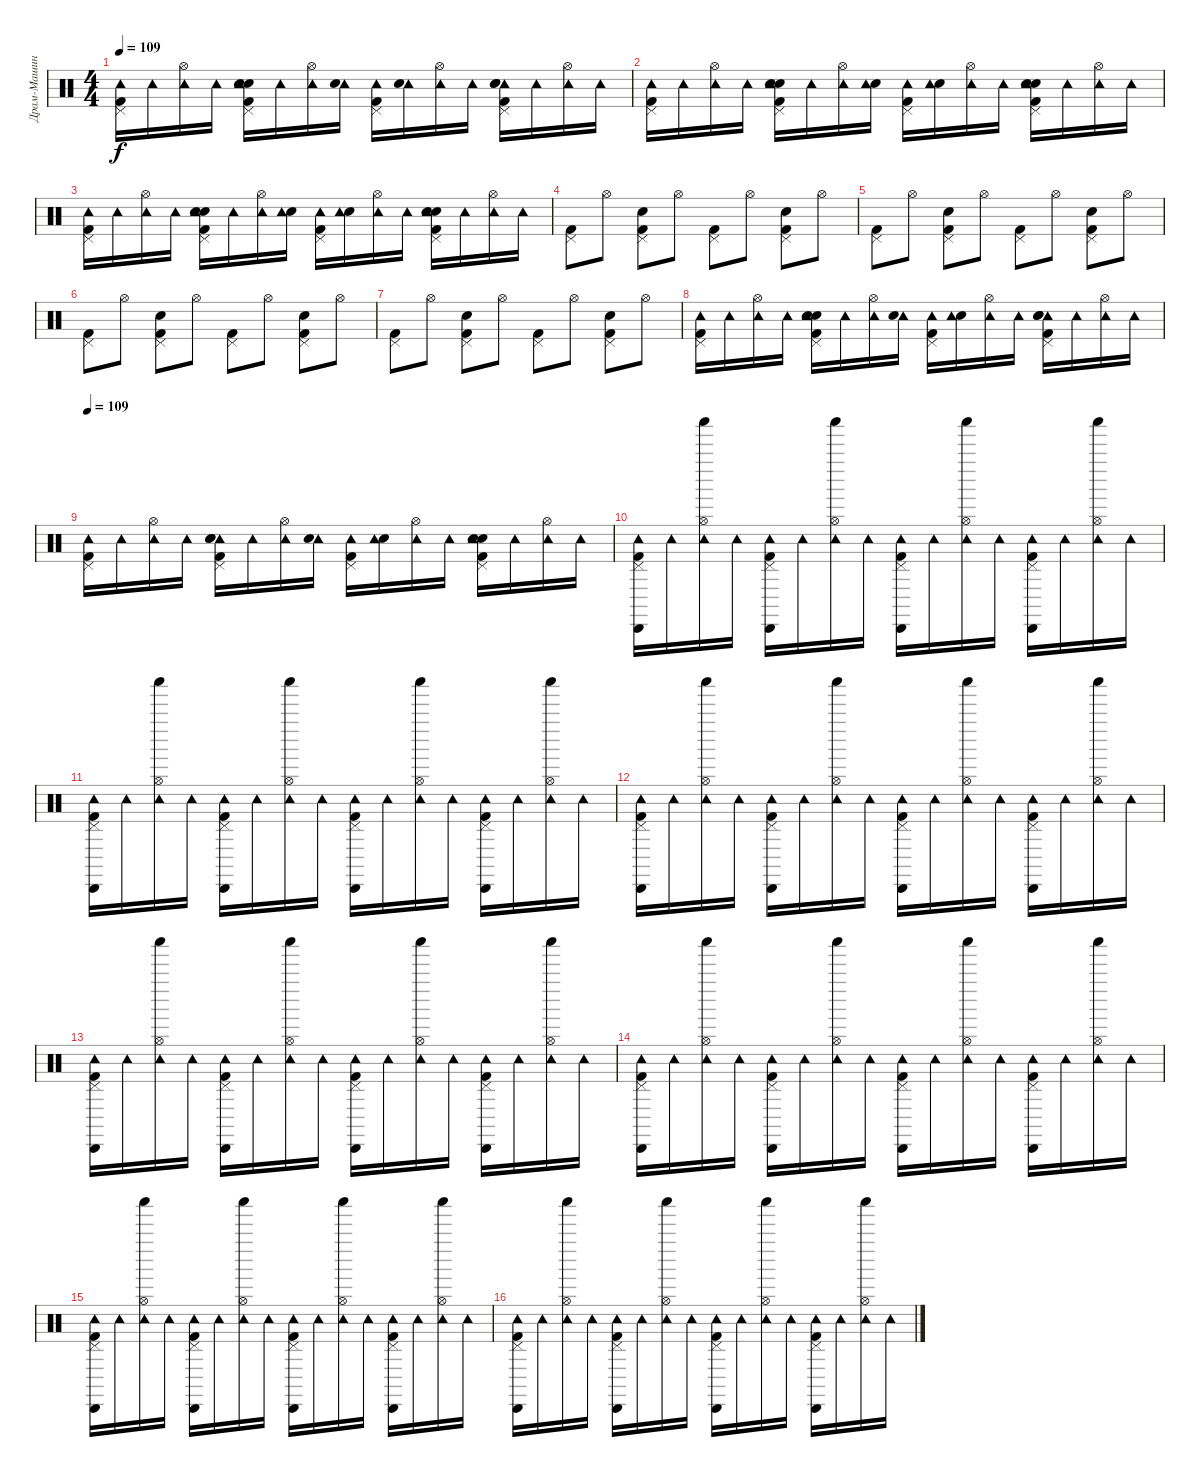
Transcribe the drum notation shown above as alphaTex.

\track ("Драм-Машина" "Драм-Машин") {instrument percussion}
\staff {score}
\articulation defaults
\ts (4 4)
\tempo 109
\clef neutral
\ks c
("Kick (hit) 2" "Tambourine (hit)" "Pedal Hi-Hat (hit)").16{dy f} "Tambourine (hit)".16 ("Hi-Hat (open)" "Tambourine (hit)").16 "Tambourine (hit)".16 ("Snare (hit) 2" "Pedal Hi-Hat (hit)" "Tambourine (hit)" "Kick (hit) 2" "Electric Snare (hit)").16 "Tambourine (hit)".16 ("Hi-Hat (open)" "Tambourine (hit)").16 ("Tambourine (hit)" "Electric Snare (hit)").16 ("Kick (hit) 2" "Pedal Hi-Hat (hit)" "Tambourine (hit)").16 ("Tambourine (hit)" "Electric Snare (hit)").16 ("Hi-Hat (open)" "Tambourine (hit)").16 "Tambourine (hit)".16 ("Tambourine (hit)" "Electric Snare (hit)" "Kick (hit) 2" "Pedal Hi-Hat (hit)" "Snare (hit) 2").16 "Tambourine (hit)".16 ("Tambourine (hit)" "Hi-Hat (open)").16 "Tambourine (hit)".16 |
("Pedal Hi-Hat (hit)" "Tambourine (hit)" "Kick (hit) 2").16 "Tambourine (hit)".16 ("Tambourine (hit)" "Hi-Hat (open)").16 "Tambourine (hit)".16 ("Snare (hit) 2" "Kick (hit) 2" "Pedal Hi-Hat (hit)" "Tambourine (hit)" "Electric Snare (hit)").16 "Tambourine (hit)".16 ("Hi-Hat (open)" "Tambourine (hit)").16 ("Electric Snare (hit)" "Tambourine (hit)").16 ("Tambourine (hit)" "Pedal Hi-Hat (hit)" "Kick (hit) 2").16 ("Electric Snare (hit)" "Tambourine (hit)").16 ("Tambourine (hit)" "Hi-Hat (open)").16 "Tambourine (hit)".16 ("Electric Snare (hit)" "Snare (hit) 2" "Tambourine (hit)" "Kick (hit) 2" "Pedal Hi-Hat (hit)").16 "Tambourine (hit)".16 ("Hi-Hat (open)" "Tambourine (hit)").16 "Tambourine (hit)".16 |
("Pedal Hi-Hat (hit)" "Tambourine (hit)" "Kick (hit) 2").16 "Tambourine (hit)".16 ("Tambourine (hit)" "Hi-Hat (open)").16 "Tambourine (hit)".16 ("Kick (hit) 2" "Snare (hit) 2" "Tambourine (hit)" "Electric Snare (hit)" "Pedal Hi-Hat (hit)").16 "Tambourine (hit)".16 ("Hi-Hat (open)" "Tambourine (hit)").16 ("Electric Snare (hit)" "Tambourine (hit)").16 ("Kick (hit) 2" "Pedal Hi-Hat (hit)" "Tambourine (hit)").16 ("Electric Snare (hit)" "Tambourine (hit)").16 ("Tambourine (hit)" "Hi-Hat (open)").16 "Tambourine (hit)".16 ("Kick (hit) 2" "Snare (hit) 2" "Tambourine (hit)" "Electric Snare (hit)" "Pedal Hi-Hat (hit)").16 "Tambourine (hit)".16 ("Tambourine (hit)" "Hi-Hat (open)").16 "Tambourine (hit)".16 |
("Pedal Hi-Hat (hit)" "Kick (hit) 2").8 "Hi-Hat (open)".8 ("Kick (hit) 2" "Pedal Hi-Hat (hit)" "Snare (hit) 2").8 "Hi-Hat (open)".8 ("Kick (hit) 2" "Pedal Hi-Hat (hit)").8 "Hi-Hat (open)".8 ("Pedal Hi-Hat (hit)" "Snare (hit) 2" "Kick (hit) 2").8 "Hi-Hat (open)".8 |
("Kick (hit) 2" "Pedal Hi-Hat (hit)").8 "Hi-Hat (open)".8 ("Kick (hit) 2" "Snare (hit) 2" "Pedal Hi-Hat (hit)").8 "Hi-Hat (open)".8 ("Pedal Hi-Hat (hit)" "Kick (hit) 2").8 "Hi-Hat (open)".8 ("Snare (hit) 2" "Pedal Hi-Hat (hit)" "Kick (hit) 2").8 "Hi-Hat (open)".8 |
("Pedal Hi-Hat (hit)" "Kick (hit) 2").8 "Hi-Hat (open)".8 ("Snare (hit) 2" "Pedal Hi-Hat (hit)" "Kick (hit) 2").8 "Hi-Hat (open)".8 ("Kick (hit) 2" "Pedal Hi-Hat (hit)").8 "Hi-Hat (open)".8 ("Snare (hit) 2" "Pedal Hi-Hat (hit)" "Kick (hit) 2").8 "Hi-Hat (open)".8 |
("Kick (hit) 2" "Pedal Hi-Hat (hit)").8 "Hi-Hat (open)".8 ("Pedal Hi-Hat (hit)" "Kick (hit) 2" "Snare (hit) 2").8 "Hi-Hat (open)".8 ("Pedal Hi-Hat (hit)" "Kick (hit) 2").8 "Hi-Hat (open)".8 ("Pedal Hi-Hat (hit)" "Snare (hit) 2" "Kick (hit) 2").8 "Hi-Hat (open)".8 |
("Tambourine (hit)" "Pedal Hi-Hat (hit)" "Kick (hit) 2").16 "Tambourine (hit)".16 ("Tambourine (hit)" "Hi-Hat (open)").16 "Tambourine (hit)".16 ("Electric Snare (hit)" "Snare (hit) 2" "Kick (hit) 2" "Tambourine (hit)" "Pedal Hi-Hat (hit)").16 "Tambourine (hit)".16 ("Hi-Hat (open)" "Tambourine (hit)").16 ("Tambourine (hit)" "Electric Snare (hit)").16 ("Tambourine (hit)" "Pedal Hi-Hat (hit)" "Kick (hit) 2").16 ("Electric Snare (hit)" "Tambourine (hit)").16 ("Tambourine (hit)" "Hi-Hat (open)").16 "Tambourine (hit)".16 ("Pedal Hi-Hat (hit)" "Tambourine (hit)" "Kick (hit) 2" "Snare (hit) 2" "Electric Snare (hit)").16 "Tambourine (hit)".16 ("Tambourine (hit)" "Hi-Hat (open)").16 "Tambourine (hit)".16 |
\tempo 109
("Tambourine (hit)" "Pedal Hi-Hat (hit)" "Kick (hit) 2").16 "Tambourine (hit)".16 ("Hi-Hat (open)" "Tambourine (hit)").16 "Tambourine (hit)".16 ("Tambourine (hit)" "Pedal Hi-Hat (hit)" "Snare (hit) 2" "Electric Snare (hit)" "Kick (hit) 2").16 "Tambourine (hit)".16 ("Hi-Hat (open)" "Tambourine (hit)").16 ("Tambourine (hit)" "Electric Snare (hit)").16 ("Tambourine (hit)" "Pedal Hi-Hat (hit)" "Kick (hit) 2").16 ("Electric Snare (hit)" "Tambourine (hit)").16 ("Tambourine (hit)" "Hi-Hat (open)").16 "Tambourine (hit)".16 ("Kick (hit) 2" "Electric Snare (hit)" "Pedal Hi-Hat (hit)" "Tambourine (hit)" "Snare (hit) 2").16 "Tambourine (hit)".16 ("Hi-Hat (open)" "Tambourine (hit)").16 "Tambourine (hit)".16 |
("Pedal Hi-Hat (hit)" "Kick (hit) 2" "Cabasa (hit)" "Tambourine (hit)").16 "Tambourine (hit)".16 ("Hi-Hat (open)" "Tambourine (hit)" "Shaker (hit)").16 "Tambourine (hit)".16 ("Kick (hit) 2" "Pedal Hi-Hat (hit)" "Tambourine (hit)" "Cabasa (hit)").16 "Tambourine (hit)".16 ("Tambourine (hit)" "Hi-Hat (open)" "Shaker (hit)").16 "Tambourine (hit)".16 ("Kick (hit) 2" "Tambourine (hit)" "Cabasa (hit)" "Pedal Hi-Hat (hit)").16 "Tambourine (hit)".16 ("Hi-Hat (open)" "Tambourine (hit)" "Shaker (hit)").16 "Tambourine (hit)".16 ("Kick (hit) 2" "Pedal Hi-Hat (hit)" "Cabasa (hit)" "Tambourine (hit)").16 "Tambourine (hit)".16 ("Hi-Hat (open)" "Tambourine (hit)" "Shaker (hit)").16 "Tambourine (hit)".16 |
("Pedal Hi-Hat (hit)" "Cabasa (hit)" "Kick (hit) 2" "Tambourine (hit)").16 "Tambourine (hit)".16 ("Shaker (hit)" "Tambourine (hit)" "Hi-Hat (open)").16 "Tambourine (hit)".16 ("Cabasa (hit)" "Kick (hit) 2" "Pedal Hi-Hat (hit)" "Tambourine (hit)").16 "Tambourine (hit)".16 ("Hi-Hat (open)" "Shaker (hit)" "Tambourine (hit)").16 "Tambourine (hit)".16 ("Cabasa (hit)" "Tambourine (hit)" "Kick (hit) 2" "Pedal Hi-Hat (hit)").16 "Tambourine (hit)".16 ("Hi-Hat (open)" "Tambourine (hit)" "Shaker (hit)").16 "Tambourine (hit)".16 ("Tambourine (hit)" "Pedal Hi-Hat (hit)" "Cabasa (hit)" "Kick (hit) 2").16 "Tambourine (hit)".16 ("Tambourine (hit)" "Shaker (hit)" "Hi-Hat (open)").16 "Tambourine (hit)".16 |
("Tambourine (hit)" "Cabasa (hit)" "Pedal Hi-Hat (hit)" "Kick (hit) 2").16 "Tambourine (hit)".16 ("Shaker (hit)" "Tambourine (hit)" "Hi-Hat (open)").16 "Tambourine (hit)".16 ("Kick (hit) 2" "Cabasa (hit)" "Tambourine (hit)" "Pedal Hi-Hat (hit)").16 "Tambourine (hit)".16 ("Tambourine (hit)" "Hi-Hat (open)" "Shaker (hit)").16 "Tambourine (hit)".16 ("Kick (hit) 2" "Cabasa (hit)" "Tambourine (hit)" "Pedal Hi-Hat (hit)").16 "Tambourine (hit)".16 ("Tambourine (hit)" "Hi-Hat (open)" "Shaker (hit)").16 "Tambourine (hit)".16 ("Kick (hit) 2" "Cabasa (hit)" "Pedal Hi-Hat (hit)" "Tambourine (hit)").16 "Tambourine (hit)".16 ("Hi-Hat (open)" "Tambourine (hit)" "Shaker (hit)").16 "Tambourine (hit)".16 |
("Kick (hit) 2" "Cabasa (hit)" "Tambourine (hit)" "Pedal Hi-Hat (hit)").16 "Tambourine (hit)".16 ("Tambourine (hit)" "Shaker (hit)" "Hi-Hat (open)").16 "Tambourine (hit)".16 ("Cabasa (hit)" "Pedal Hi-Hat (hit)" "Kick (hit) 2" "Tambourine (hit)").16 "Tambourine (hit)".16 ("Hi-Hat (open)" "Shaker (hit)" "Tambourine (hit)").16 "Tambourine (hit)".16 ("Cabasa (hit)" "Kick (hit) 2" "Tambourine (hit)" "Pedal Hi-Hat (hit)").16 "Tambourine (hit)".16 ("Tambourine (hit)" "Hi-Hat (open)" "Shaker (hit)").16 "Tambourine (hit)".16 ("Pedal Hi-Hat (hit)" "Kick (hit) 2" "Tambourine (hit)" "Cabasa (hit)").16 "Tambourine (hit)".16 ("Shaker (hit)" "Tambourine (hit)" "Hi-Hat (open)").16 "Tambourine (hit)".16 |
("Pedal Hi-Hat (hit)" "Cabasa (hit)" "Tambourine (hit)" "Kick (hit) 2").16 "Tambourine (hit)".16 ("Tambourine (hit)" "Shaker (hit)" "Hi-Hat (open)").16 "Tambourine (hit)".16 ("Cabasa (hit)" "Pedal Hi-Hat (hit)" "Tambourine (hit)" "Kick (hit) 2").16 "Tambourine (hit)".16 ("Tambourine (hit)" "Hi-Hat (open)" "Shaker (hit)").16 "Tambourine (hit)".16 ("Pedal Hi-Hat (hit)" "Tambourine (hit)" "Kick (hit) 2" "Cabasa (hit)").16 "Tambourine (hit)".16 ("Tambourine (hit)" "Hi-Hat (open)" "Shaker (hit)").16 "Tambourine (hit)".16 ("Cabasa (hit)" "Pedal Hi-Hat (hit)" "Tambourine (hit)" "Kick (hit) 2").16 "Tambourine (hit)".16 ("Hi-Hat (open)" "Tambourine (hit)" "Shaker (hit)").16 "Tambourine (hit)".16 |
("Tambourine (hit)" "Cabasa (hit)" "Pedal Hi-Hat (hit)" "Kick (hit) 2").16 "Tambourine (hit)".16 ("Shaker (hit)" "Hi-Hat (open)" "Tambourine (hit)").16 "Tambourine (hit)".16 ("Pedal Hi-Hat (hit)" "Cabasa (hit)" "Tambourine (hit)" "Kick (hit) 2").16 "Tambourine (hit)".16 ("Shaker (hit)" "Hi-Hat (open)" "Tambourine (hit)").16 "Tambourine (hit)".16 ("Cabasa (hit)" "Kick (hit) 2" "Tambourine (hit)" "Pedal Hi-Hat (hit)").16 "Tambourine (hit)".16 ("Shaker (hit)" "Tambourine (hit)" "Hi-Hat (open)").16 "Tambourine (hit)".16 ("Pedal Hi-Hat (hit)" "Cabasa (hit)" "Kick (hit) 2" "Tambourine (hit)").16 "Tambourine (hit)".16 ("Tambourine (hit)" "Hi-Hat (open)" "Shaker (hit)").16 "Tambourine (hit)".16 |
("Tambourine (hit)" "Kick (hit) 2" "Pedal Hi-Hat (hit)" "Cabasa (hit)").16 "Tambourine (hit)".16 ("Shaker (hit)" "Tambourine (hit)" "Hi-Hat (open)").16 "Tambourine (hit)".16 ("Cabasa (hit)" "Pedal Hi-Hat (hit)" "Tambourine (hit)" "Kick (hit) 2").16 "Tambourine (hit)".16 ("Tambourine (hit)" "Hi-Hat (open)" "Shaker (hit)").16 "Tambourine (hit)".16 ("Kick (hit) 2" "Tambourine (hit)" "Pedal Hi-Hat (hit)" "Cabasa (hit)").16 "Tambourine (hit)".16 ("Tambourine (hit)" "Shaker (hit)" "Hi-Hat (open)").16 "Tambourine (hit)".16 ("Tambourine (hit)" "Cabasa (hit)" "Kick (hit) 2" "Pedal Hi-Hat (hit)").16 "Tambourine (hit)".16 ("Shaker (hit)" "Hi-Hat (open)" "Tambourine (hit)").16 "Tambourine (hit)".16
